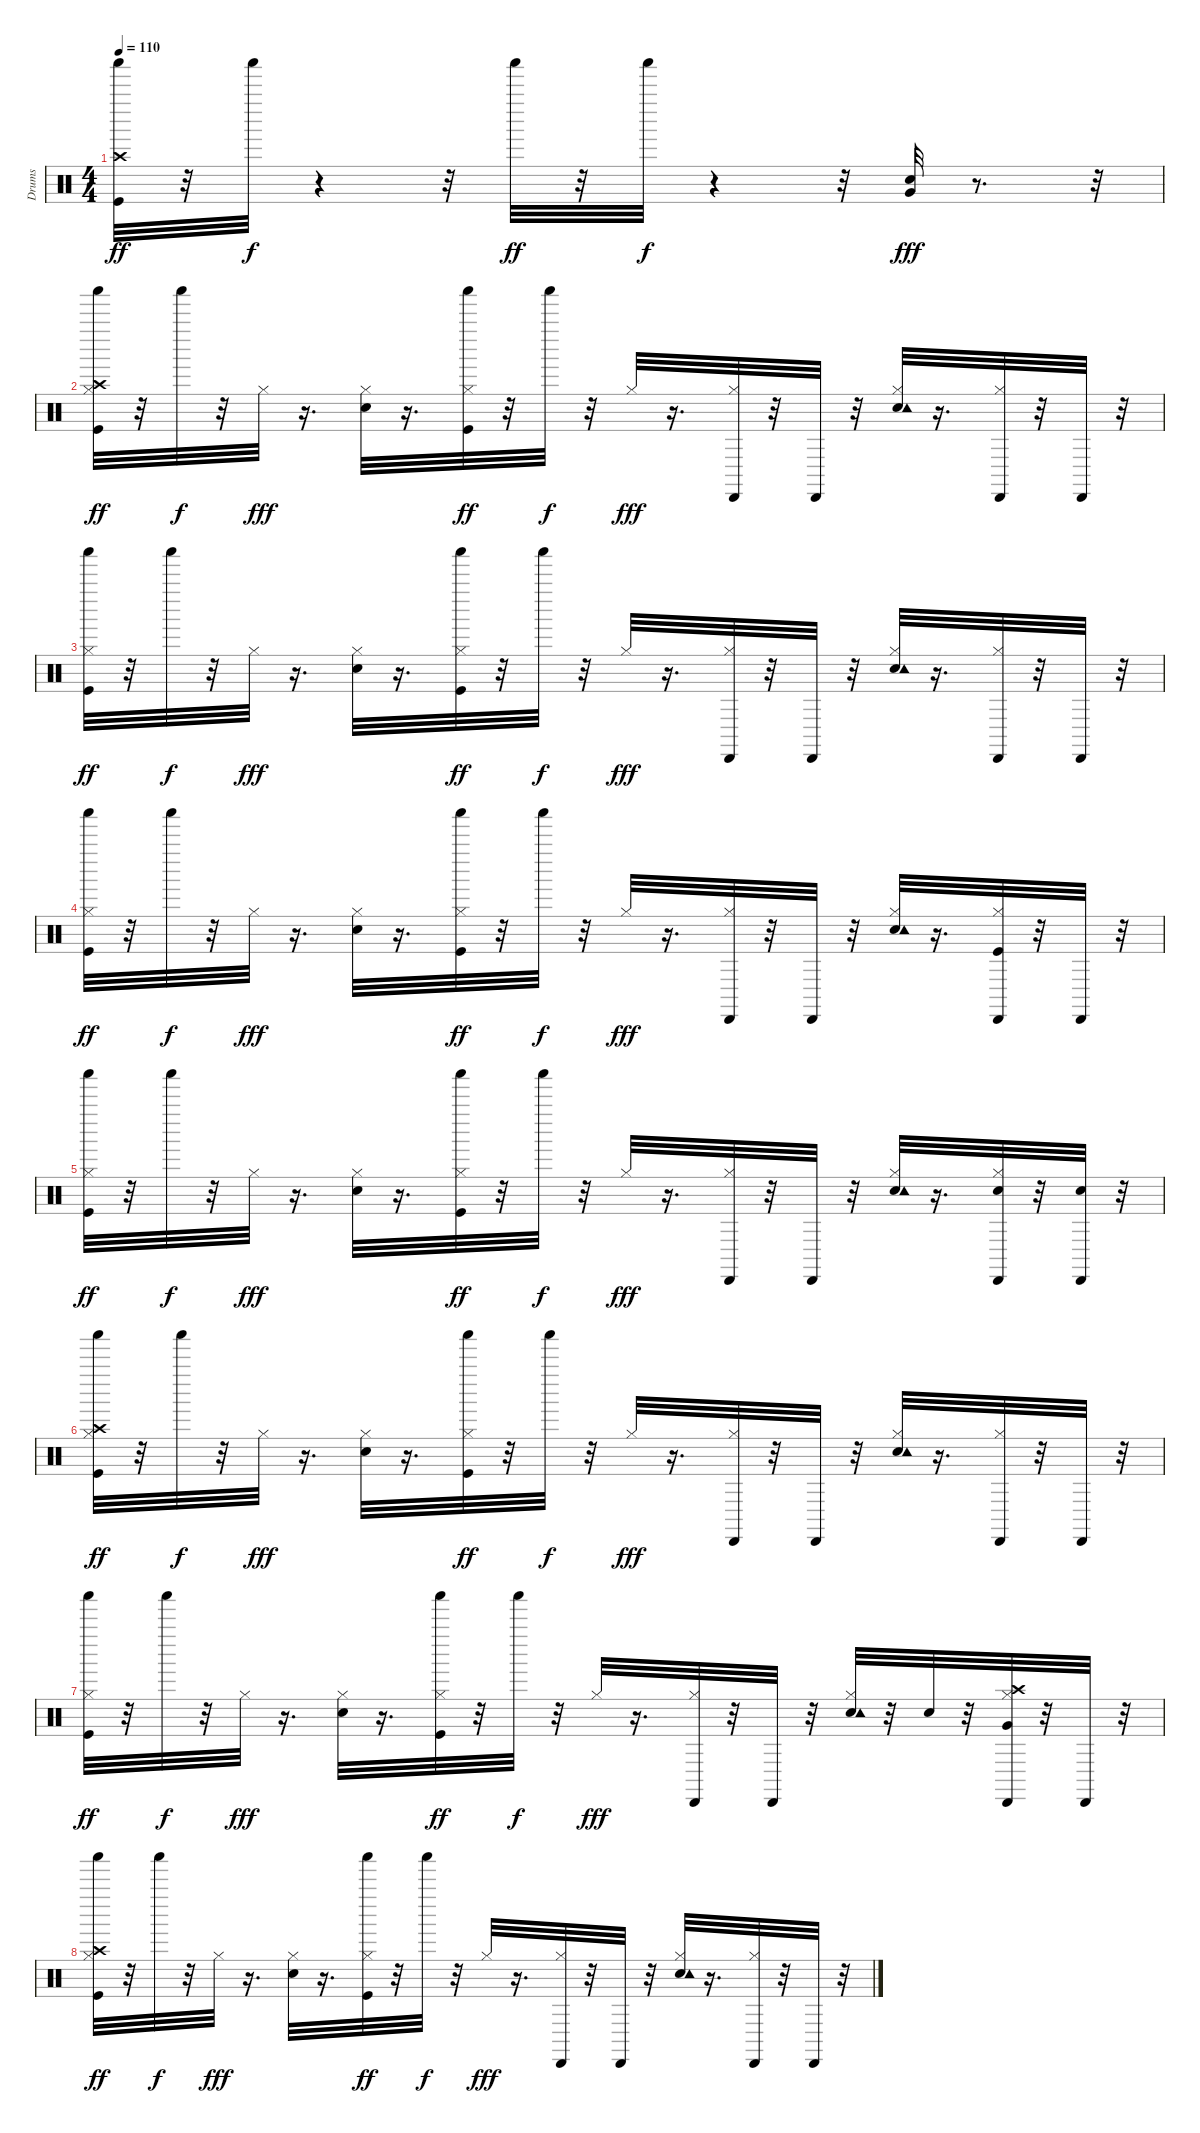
\track ("Drums               " "Drums     ") {instrument percussion}
\staff {score}
\articulation defaults
\ts (4 4)
\tempo 110
\clef neutral
\ks c
("Kick (hit)" "Crash high (hit)" "Shaker (hit)").32{dy ff} r.32 "Shaker (hit)".32{dy f} r.4 r.32 "Shaker (hit)".32{dy ff} r.32 "Shaker (hit)".32{dy f} r.4 r.32 ("Electric Snare (hit)" "Very Low Tom (hit)").32{dy fff} r.8{d} r.32 |
("Kick (hit)" "Hi-Hat (closed)" "Crash high (hit)" "Shaker (hit)").32{dy ff} r.32 "Shaker (hit)".32{dy f} r.32 "Hi-Hat (closed)".32{dy fff} r.16{d} ("Electric Snare (hit)" "Hi-Hat (closed)").32 r.16{d} ("Kick (hit)" "Hi-Hat (closed)" "Shaker (hit)").32{dy ff} r.32 "Shaker (hit)".32{dy f} r.32 "Hi-Hat (closed)".32{dy fff} r.16{d} ("Hi-Hat (closed)" "Cabasa (hit)").32 r.32 "Cabasa (hit)".32 r.32 ("Electric Snare (hit)" "Hi-Hat (closed)" "Tambourine (hit)").32 r.16{d} ("Hi-Hat (closed)" "Cabasa (hit)").32 r.32 "Cabasa (hit)".32 r.32 |
("Kick (hit)" "Hi-Hat (closed)" "Shaker (hit)").32{dy ff} r.32 "Shaker (hit)".32{dy f} r.32 "Hi-Hat (closed)".32{dy fff} r.16{d} ("Electric Snare (hit)" "Hi-Hat (closed)").32 r.16{d} ("Kick (hit)" "Hi-Hat (closed)" "Shaker (hit)").32{dy ff} r.32 "Shaker (hit)".32{dy f} r.32 "Hi-Hat (closed)".32{dy fff} r.16{d} ("Hi-Hat (closed)" "Cabasa (hit)").32 r.32 "Cabasa (hit)".32 r.32 ("Electric Snare (hit)" "Hi-Hat (closed)" "Tambourine (hit)").32 r.16{d} ("Hi-Hat (closed)" "Cabasa (hit)").32 r.32 "Cabasa (hit)".32 r.32 |
("Kick (hit)" "Hi-Hat (closed)" "Shaker (hit)").32{dy ff} r.32 "Shaker (hit)".32{dy f} r.32 "Hi-Hat (closed)".32{dy fff} r.16{d} ("Electric Snare (hit)" "Hi-Hat (closed)").32 r.16{d} ("Kick (hit)" "Hi-Hat (closed)" "Shaker (hit)").32{dy ff} r.32 "Shaker (hit)".32{dy f} r.32 "Hi-Hat (closed)".32{dy fff} r.16{d} ("Hi-Hat (closed)" "Cabasa (hit)").32 r.32 "Cabasa (hit)".32 r.32 ("Electric Snare (hit)" "Hi-Hat (closed)" "Tambourine (hit)").32 r.16{d} ("Kick (hit)" "Hi-Hat (closed)" "Cabasa (hit)").32 r.32 "Cabasa (hit)".32 r.32 |
("Kick (hit)" "Hi-Hat (closed)" "Shaker (hit)").32{dy ff} r.32 "Shaker (hit)".32{dy f} r.32 "Hi-Hat (closed)".32{dy fff} r.16{d} ("Electric Snare (hit)" "Hi-Hat (closed)").32 r.16{d} ("Kick (hit)" "Hi-Hat (closed)" "Shaker (hit)").32{dy ff} r.32 "Shaker (hit)".32{dy f} r.32 "Hi-Hat (closed)".32{dy fff} r.16{d} ("Hi-Hat (closed)" "Cabasa (hit)").32 r.32 "Cabasa (hit)".32 r.32 ("Electric Snare (hit)" "Hi-Hat (closed)" "Tambourine (hit)").32 r.16{d} ("Electric Snare (hit)" "Hi-Hat (closed)" "Cabasa (hit)").32 r.32 ("Electric Snare (hit)" "Cabasa (hit)").32 r.32 |
("Kick (hit)" "Hi-Hat (closed)" "Crash high (hit)" "Shaker (hit)").32{dy ff} r.32 "Shaker (hit)".32{dy f} r.32 "Hi-Hat (closed)".32{dy fff} r.16{d} ("Electric Snare (hit)" "Hi-Hat (closed)").32 r.16{d} ("Kick (hit)" "Hi-Hat (closed)" "Shaker (hit)").32{dy ff} r.32 "Shaker (hit)".32{dy f} r.32 "Hi-Hat (closed)".32{dy fff} r.16{d} ("Hi-Hat (closed)" "Cabasa (hit)").32 r.32 "Cabasa (hit)".32 r.32 ("Electric Snare (hit)" "Hi-Hat (closed)" "Tambourine (hit)").32 r.16{d} ("Hi-Hat (closed)" "Cabasa (hit)").32 r.32 "Cabasa (hit)".32 r.32 |
("Kick (hit)" "Hi-Hat (closed)" "Shaker (hit)").32{dy ff} r.32 "Shaker (hit)".32{dy f} r.32 "Hi-Hat (closed)".32{dy fff} r.16{d} ("Electric Snare (hit)" "Hi-Hat (closed)").32 r.16{d} ("Kick (hit)" "Hi-Hat (closed)" "Shaker (hit)").32{dy ff} r.32 "Shaker (hit)".32{dy f} r.32 "Hi-Hat (closed)".32{dy fff} r.16{d} ("Hi-Hat (closed)" "Cabasa (hit)").32 r.32 "Cabasa (hit)".32 r.32 ("Electric Snare (hit)" "Hi-Hat (closed)" "Tambourine (hit)").32 r.32 "Electric Snare (hit)".32 r.32 ("Hi-Hat (closed)" "Very Low Tom (hit)" "Crash high (hit)" "Cabasa (hit)").32 r.32 "Cabasa (hit)".32 r.32 |
("Kick (hit)" "Hi-Hat (closed)" "Crash high (hit)" "Shaker (hit)").32{dy ff} r.32 "Shaker (hit)".32{dy f} r.32 "Hi-Hat (closed)".32{dy fff} r.16{d} ("Electric Snare (hit)" "Hi-Hat (closed)").32 r.16{d} ("Kick (hit)" "Hi-Hat (closed)" "Shaker (hit)").32{dy ff} r.32 "Shaker (hit)".32{dy f} r.32 "Hi-Hat (closed)".32{dy fff} r.16{d} ("Hi-Hat (closed)" "Cabasa (hit)").32 r.32 "Cabasa (hit)".32 r.32 ("Electric Snare (hit)" "Hi-Hat (closed)" "Tambourine (hit)").32 r.16{d} ("Hi-Hat (closed)" "Cabasa (hit)").32 r.32 "Cabasa (hit)".32 r.32
